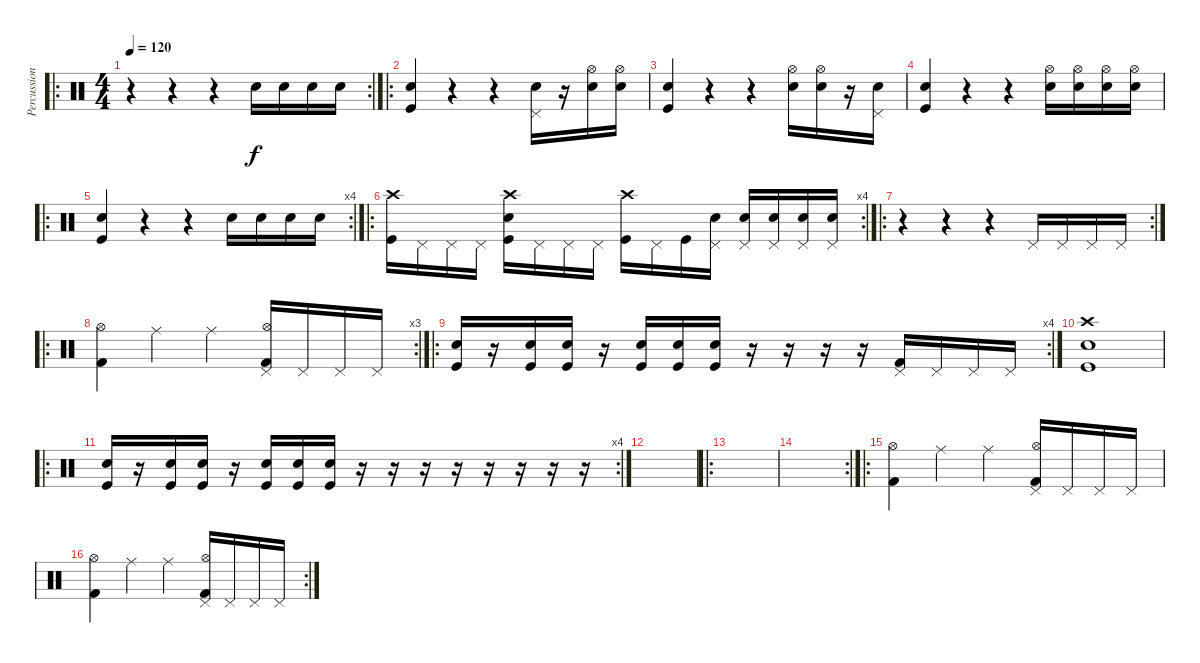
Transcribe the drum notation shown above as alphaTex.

\track ("Percussions" "Percussion") {instrument percussion}
\staff {score}
\articulation defaults
\ro
\rc 2
\ts (4 4)
\tempo 120
\clef neutral
\ks c
r.4{dy f} r.4 r.4 "Electric Snare (hit)".16 "Electric Snare (hit)".16 "Electric Snare (hit)".16 "Electric Snare (hit)".16 |
\ro
("Electric Snare (hit)" "Kick (hit)").4 r.4 r.4 ("Pedal Hi-Hat (hit)" "Electric Snare (hit)").16 r.16 ("Hi-Hat (open)" "Electric Snare (hit)").16 ("Hi-Hat (open)" "Electric Snare (hit)").16 |
("Electric Snare (hit)" "Kick (hit)").4 r.4 r.4 ("Hi-Hat (open)" "Electric Snare (hit)").16 ("Hi-Hat (open)" "Electric Snare (hit)").16 r.16 ("Pedal Hi-Hat (hit)" "Electric Snare (hit)").16 |
("Electric Snare (hit)" "Kick (hit)").4 r.4 r.4 ("Hi-Hat (open)" "Electric Snare (hit)").16 ("Hi-Hat (open)" "Electric Snare (hit)").16 ("Hi-Hat (open)" "Electric Snare (hit)").16 ("Hi-Hat (open)" "Electric Snare (hit)").16 |
\ro
\rc 4
("Electric Snare (hit)" "Kick (hit)").4 r.4 r.4 "Electric Snare (hit)".16 "Electric Snare (hit)".16 "Electric Snare (hit)".16 "Electric Snare (hit)".16 |
\ro
\rc 4
("Crash high (hit)" "Kick (hit)").16 "Pedal Hi-Hat (hit)".16 "Pedal Hi-Hat (hit)".16 "Pedal Hi-Hat (hit)".16 ("Crash high (hit)" "Electric Snare (hit)" "Kick (hit)").16 "Pedal Hi-Hat (hit)".16 "Pedal Hi-Hat (hit)".16 "Pedal Hi-Hat (hit)".16 ("Crash high (hit)" "Kick (hit)").16 "Pedal Hi-Hat (hit)".16 "Kick (hit)".16 ("Pedal Hi-Hat (hit)" "Electric Snare (hit)").16 ("Pedal Hi-Hat (hit)" "Electric Snare (hit)").16 ("Pedal Hi-Hat (hit)" "Electric Snare (hit)").16 ("Pedal Hi-Hat (hit)" "Electric Snare (hit)").16 ("Pedal Hi-Hat (hit)" "Electric Snare (hit)").16 |
\ro
\rc 2
r.4 r.4 r.4 "Pedal Hi-Hat (hit)".16 "Pedal Hi-Hat (hit)".16 "Pedal Hi-Hat (hit)".16 "Pedal Hi-Hat (hit)".16 |
\ro
\rc 3
("Hi-Hat (open)" "Kick (hit) 2").4 "Ride (middle)".4 "Ride (middle)".4 ("Hi-Hat (open)" "Pedal Hi-Hat (hit)" "Kick (hit) 2").16 "Pedal Hi-Hat (hit)".16 "Pedal Hi-Hat (hit)".16 "Pedal Hi-Hat (hit)".16 |
\ro
\rc 4
("Electric Snare (hit)" "Kick (hit)").16 r.16 ("Electric Snare (hit)" "Kick (hit)").16 ("Electric Snare (hit)" "Kick (hit)").16 r.16 ("Electric Snare (hit)" "Kick (hit)").16 ("Electric Snare (hit)" "Kick (hit)").16 ("Electric Snare (hit)" "Kick (hit)").16 r.16 r.16 r.16 r.16 ("Pedal Hi-Hat (hit)" "Kick (hit) 2").16 "Pedal Hi-Hat (hit)".16 "Pedal Hi-Hat (hit)".16 "Pedal Hi-Hat (hit)".16 |
("Crash high (hit)" "Electric Snare (hit)" "Kick (hit)").1 |
\ro
\rc 4
("Electric Snare (hit)" "Kick (hit)").16 r.16 ("Electric Snare (hit)" "Kick (hit)").16 ("Electric Snare (hit)" "Kick (hit)").16 r.16 ("Electric Snare (hit)" "Kick (hit)").16 ("Electric Snare (hit)" "Kick (hit)").16 ("Electric Snare (hit)" "Kick (hit)").16 r.16 r.16 r.16 r.16 r.16 r.16 r.16 r.16 |
|
\ro
|
\rc 2
|
\ro
("Hi-Hat (open)" "Kick (hit) 2").4 "Ride (middle)".4 "Ride (middle)".4 ("Hi-Hat (open)" "Pedal Hi-Hat (hit)" "Kick (hit) 2").16 "Pedal Hi-Hat (hit)".16 "Pedal Hi-Hat (hit)".16 "Pedal Hi-Hat (hit)".16 |
\rc 2
("Hi-Hat (open)" "Kick (hit) 2").4 "Ride (middle)".4 "Ride (middle)".4 ("Hi-Hat (open)" "Pedal Hi-Hat (hit)" "Kick (hit) 2").16 "Pedal Hi-Hat (hit)".16 "Pedal Hi-Hat (hit)".16 "Pedal Hi-Hat (hit)".16
